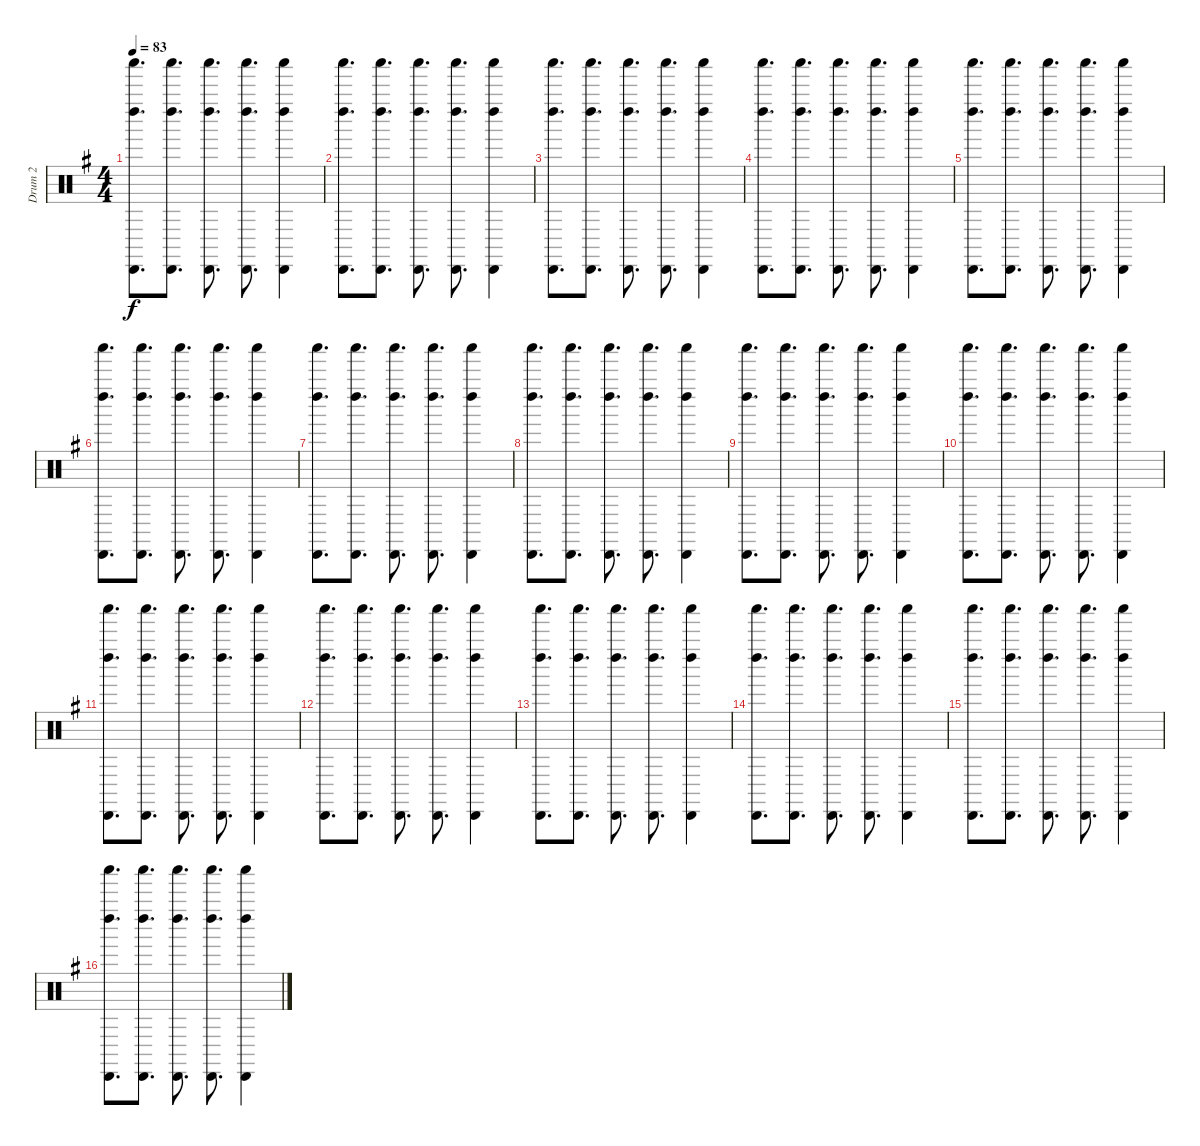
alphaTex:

\track ("Drum 2" "Drum 2") {instrument percussion}
\staff {score}
\articulation defaults
\ts (4 4)
\tempo 83
\clef neutral
\ks eminor
("Shaker (hit)" "Cabasa (hit)" "Left Maraca (hit)").8{d dy f} ("Shaker (hit)" "Cabasa (hit)" "Left Maraca (hit)").8{d} ("Shaker (hit)" "Cabasa (hit)" "Left Maraca (hit)").8{d} ("Shaker (hit)" "Cabasa (hit)" "Left Maraca (hit)").8{d} ("Shaker (hit)" "Cabasa (hit)" "Left Maraca (hit)").4 |
("Shaker (hit)" "Cabasa (hit)" "Left Maraca (hit)").8{d} ("Shaker (hit)" "Cabasa (hit)" "Left Maraca (hit)").8{d} ("Shaker (hit)" "Cabasa (hit)" "Left Maraca (hit)").8{d} ("Shaker (hit)" "Cabasa (hit)" "Left Maraca (hit)").8{d} ("Shaker (hit)" "Cabasa (hit)" "Left Maraca (hit)").4 |
("Shaker (hit)" "Cabasa (hit)" "Left Maraca (hit)").8{d} ("Shaker (hit)" "Cabasa (hit)" "Left Maraca (hit)").8{d} ("Shaker (hit)" "Cabasa (hit)" "Left Maraca (hit)").8{d} ("Shaker (hit)" "Cabasa (hit)" "Left Maraca (hit)").8{d} ("Shaker (hit)" "Cabasa (hit)" "Left Maraca (hit)").4 |
("Shaker (hit)" "Cabasa (hit)" "Left Maraca (hit)").8{d} ("Shaker (hit)" "Cabasa (hit)" "Left Maraca (hit)").8{d} ("Shaker (hit)" "Cabasa (hit)" "Left Maraca (hit)").8{d} ("Shaker (hit)" "Cabasa (hit)" "Left Maraca (hit)").8{d} ("Shaker (hit)" "Cabasa (hit)" "Left Maraca (hit)").4 |
("Shaker (hit)" "Cabasa (hit)" "Left Maraca (hit)").8{d} ("Shaker (hit)" "Cabasa (hit)" "Left Maraca (hit)").8{d} ("Shaker (hit)" "Cabasa (hit)" "Left Maraca (hit)").8{d} ("Shaker (hit)" "Cabasa (hit)" "Left Maraca (hit)").8{d} ("Shaker (hit)" "Cabasa (hit)" "Left Maraca (hit)").4 |
("Shaker (hit)" "Cabasa (hit)" "Left Maraca (hit)").8{d} ("Shaker (hit)" "Cabasa (hit)" "Left Maraca (hit)").8{d} ("Shaker (hit)" "Cabasa (hit)" "Left Maraca (hit)").8{d} ("Shaker (hit)" "Cabasa (hit)" "Left Maraca (hit)").8{d} ("Shaker (hit)" "Cabasa (hit)" "Left Maraca (hit)").4 |
("Shaker (hit)" "Cabasa (hit)" "Left Maraca (hit)").8{d} ("Shaker (hit)" "Cabasa (hit)" "Left Maraca (hit)").8{d} ("Shaker (hit)" "Cabasa (hit)" "Left Maraca (hit)").8{d} ("Shaker (hit)" "Cabasa (hit)" "Left Maraca (hit)").8{d} ("Shaker (hit)" "Cabasa (hit)" "Left Maraca (hit)").4 |
("Shaker (hit)" "Cabasa (hit)" "Left Maraca (hit)").8{d} ("Shaker (hit)" "Cabasa (hit)" "Left Maraca (hit)").8{d} ("Shaker (hit)" "Cabasa (hit)" "Left Maraca (hit)").8{d} ("Shaker (hit)" "Cabasa (hit)" "Left Maraca (hit)").8{d} ("Shaker (hit)" "Cabasa (hit)" "Left Maraca (hit)").4 |
("Shaker (hit)" "Cabasa (hit)" "Left Maraca (hit)").8{d} ("Shaker (hit)" "Cabasa (hit)" "Left Maraca (hit)").8{d} ("Shaker (hit)" "Cabasa (hit)" "Left Maraca (hit)").8{d} ("Shaker (hit)" "Cabasa (hit)" "Left Maraca (hit)").8{d} ("Shaker (hit)" "Cabasa (hit)" "Left Maraca (hit)").4 |
("Shaker (hit)" "Cabasa (hit)" "Left Maraca (hit)").8{d} ("Shaker (hit)" "Cabasa (hit)" "Left Maraca (hit)").8{d} ("Shaker (hit)" "Cabasa (hit)" "Left Maraca (hit)").8{d} ("Shaker (hit)" "Cabasa (hit)" "Left Maraca (hit)").8{d} ("Shaker (hit)" "Cabasa (hit)" "Left Maraca (hit)").4 |
("Shaker (hit)" "Cabasa (hit)" "Left Maraca (hit)").8{d} ("Shaker (hit)" "Cabasa (hit)" "Left Maraca (hit)").8{d} ("Shaker (hit)" "Cabasa (hit)" "Left Maraca (hit)").8{d} ("Shaker (hit)" "Cabasa (hit)" "Left Maraca (hit)").8{d} ("Shaker (hit)" "Cabasa (hit)" "Left Maraca (hit)").4 |
("Shaker (hit)" "Cabasa (hit)" "Left Maraca (hit)").8{d} ("Shaker (hit)" "Cabasa (hit)" "Left Maraca (hit)").8{d} ("Shaker (hit)" "Cabasa (hit)" "Left Maraca (hit)").8{d} ("Shaker (hit)" "Cabasa (hit)" "Left Maraca (hit)").8{d} ("Shaker (hit)" "Cabasa (hit)" "Left Maraca (hit)").4 |
("Shaker (hit)" "Cabasa (hit)" "Left Maraca (hit)").8{d} ("Shaker (hit)" "Cabasa (hit)" "Left Maraca (hit)").8{d} ("Shaker (hit)" "Cabasa (hit)" "Left Maraca (hit)").8{d} ("Shaker (hit)" "Cabasa (hit)" "Left Maraca (hit)").8{d} ("Shaker (hit)" "Cabasa (hit)" "Left Maraca (hit)").4 |
("Shaker (hit)" "Cabasa (hit)" "Left Maraca (hit)").8{d} ("Shaker (hit)" "Cabasa (hit)" "Left Maraca (hit)").8{d} ("Shaker (hit)" "Cabasa (hit)" "Left Maraca (hit)").8{d} ("Shaker (hit)" "Cabasa (hit)" "Left Maraca (hit)").8{d} ("Shaker (hit)" "Cabasa (hit)" "Left Maraca (hit)").4 |
("Shaker (hit)" "Cabasa (hit)" "Left Maraca (hit)").8{d} ("Shaker (hit)" "Cabasa (hit)" "Left Maraca (hit)").8{d} ("Shaker (hit)" "Cabasa (hit)" "Left Maraca (hit)").8{d} ("Shaker (hit)" "Cabasa (hit)" "Left Maraca (hit)").8{d} ("Shaker (hit)" "Cabasa (hit)" "Left Maraca (hit)").4 |
("Shaker (hit)" "Cabasa (hit)" "Left Maraca (hit)").8{d} ("Shaker (hit)" "Cabasa (hit)" "Left Maraca (hit)").8{d} ("Shaker (hit)" "Cabasa (hit)" "Left Maraca (hit)").8{d} ("Shaker (hit)" "Cabasa (hit)" "Left Maraca (hit)").8{d} ("Shaker (hit)" "Cabasa (hit)" "Left Maraca (hit)").4
